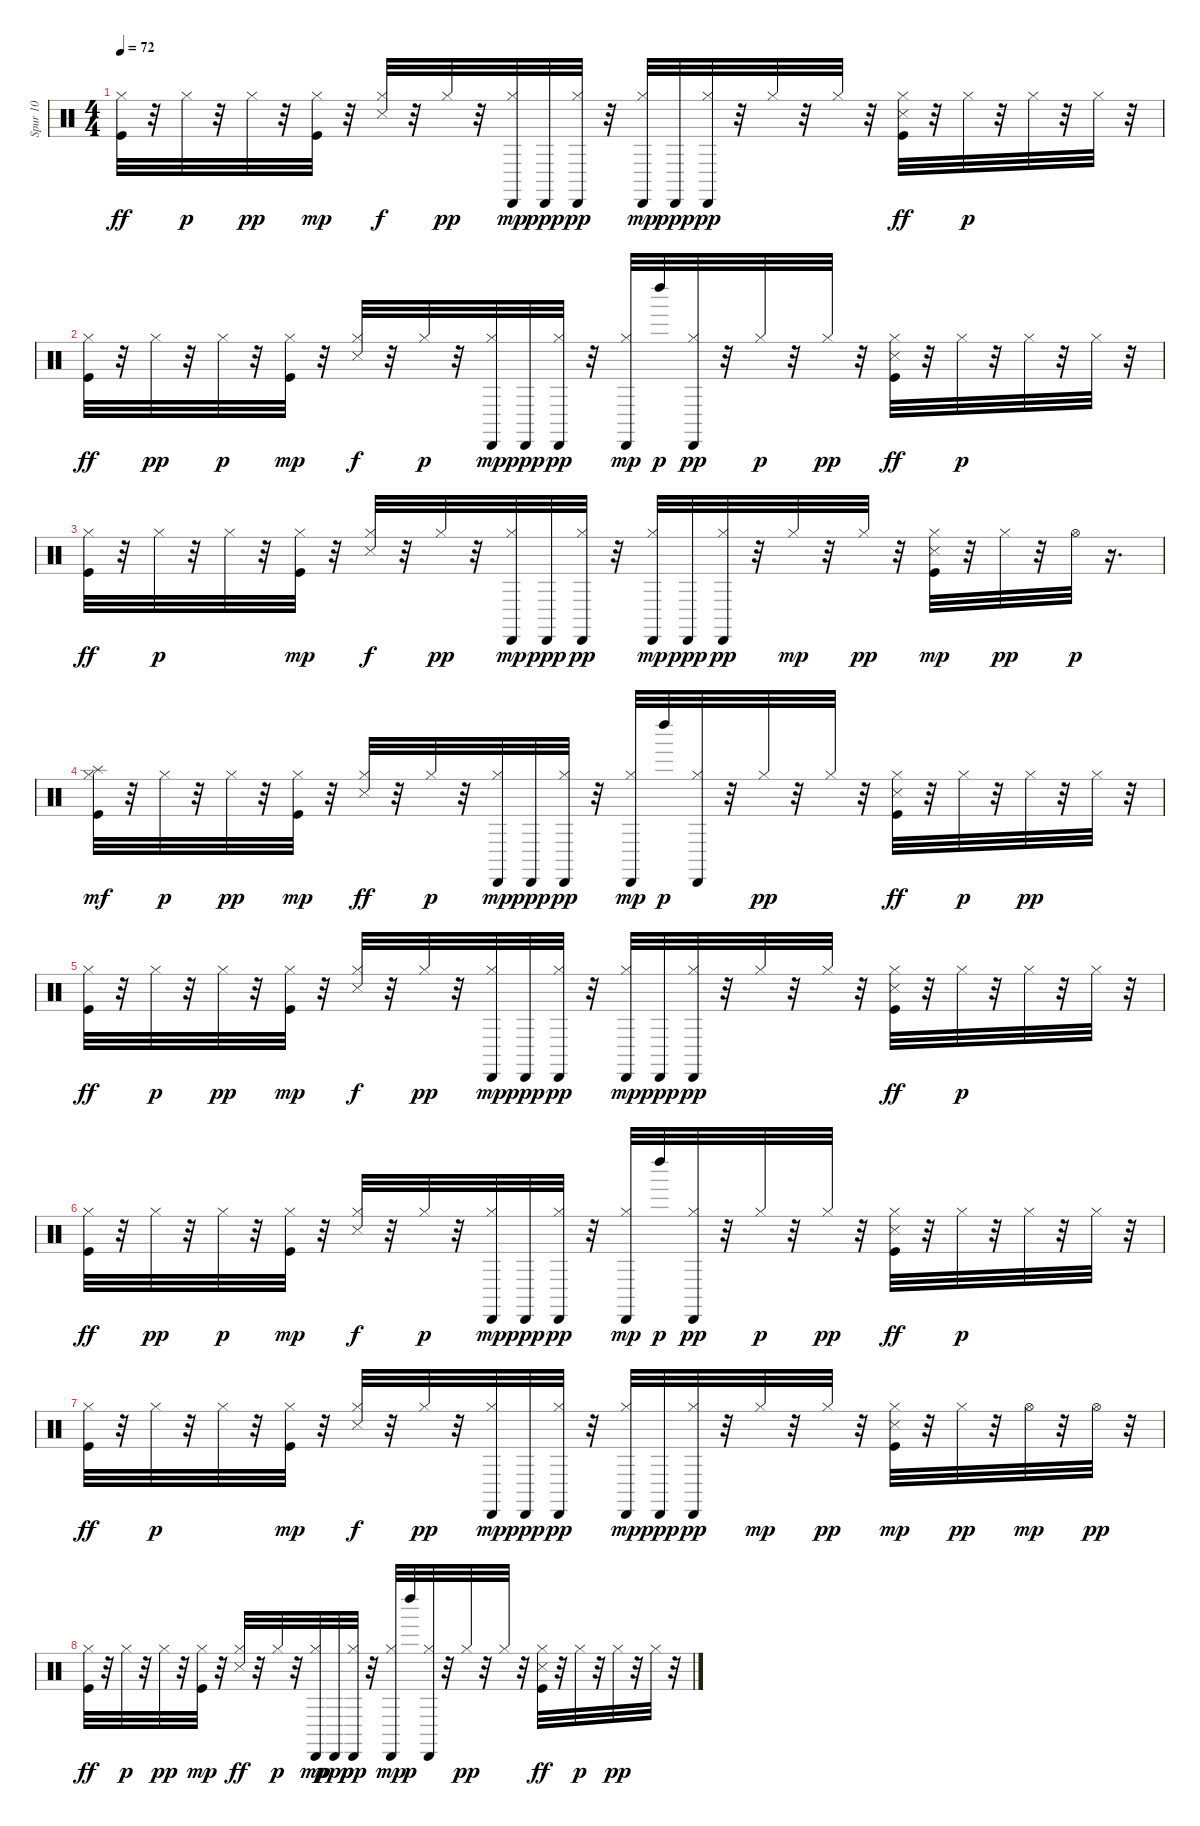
\track ("Spur 10" "Spur 10") {instrument percussion}
\staff {score}
\articulation defaults
\ts (4 4)
\tempo 72
\clef neutral
\ks c
("Kick (hit)" "Hi-Hat (closed)").32{dy ff} r.32 "Hi-Hat (closed)".32{dy p} r.32 "Hi-Hat (closed)".32{dy pp} r.32 ("Hi-Hat (closed)" "Kick (hit)").32{dy mp} r.32 ("Snare (side stick) 3" "Hi-Hat (closed)").32{dy f} r.32 "Hi-Hat (closed)".32{dy pp} r.32 ("Hi-Hat (closed)" "Cabasa (hit)").32{dy mp} "Cabasa (hit)".32{dy ppp} ("Hi-Hat (closed)" "Cabasa (hit)").32{dy pp} r.32 ("Hi-Hat (closed)" "Cabasa (hit)").32{dy mp} "Cabasa (hit)".32{dy ppp} ("Cabasa (hit)" "Hi-Hat (closed)").32{dy pp} r.32 "Hi-Hat (closed)".32 r.32 "Hi-Hat (closed)".32 r.32 ("Snare (side stick) 3" "Kick (hit)" "Hi-Hat (closed)").32{dy ff} r.32 "Hi-Hat (closed)".32{dy p} r.32 "Hi-Hat (closed)".32 r.32 "Hi-Hat (closed)".32 r.32 |
("Kick (hit)" "Hi-Hat (closed)").32{dy ff} r.32 "Hi-Hat (closed)".32{dy pp} r.32 "Hi-Hat (closed)".32{dy p} r.32 ("Hi-Hat (closed)" "Kick (hit)").32{dy mp} r.32 ("Snare (side stick) 3" "Hi-Hat (closed)").32{dy f} r.32 "Hi-Hat (closed)".32{dy p} r.32 ("Hi-Hat (closed)" "Cabasa (hit)").32{dy mp} "Cabasa (hit)".32{dy ppp} ("Hi-Hat (closed)" "Cabasa (hit)").32{dy pp} r.32 ("Hi-Hat (closed)" "Cabasa (hit)").32{dy mp} "Left Maraca (hit)".32{dy p} ("Cabasa (hit)" "Hi-Hat (closed)").32{dy pp} r.32 "Hi-Hat (closed)".32{dy p} r.32 "Hi-Hat (closed)".32{dy pp} r.32 ("Snare (side stick) 3" "Kick (hit)" "Hi-Hat (closed)").32{dy ff} r.32 "Hi-Hat (closed)".32{dy p} r.32 "Hi-Hat (closed)".32 r.32 "Hi-Hat (closed)".32 r.32 |
("Kick (hit)" "Hi-Hat (closed)").32{dy ff} r.32 "Hi-Hat (closed)".32{dy p} r.32 "Hi-Hat (closed)".32 r.32 ("Hi-Hat (closed)" "Kick (hit)").32{dy mp} r.32 ("Snare (side stick) 3" "Hi-Hat (closed)").32{dy f} r.32 "Hi-Hat (closed)".32{dy pp} r.32 ("Hi-Hat (closed)" "Cabasa (hit)").32{dy mp} "Cabasa (hit)".32{dy ppp} ("Hi-Hat (closed)" "Cabasa (hit)").32{dy pp} r.32 ("Hi-Hat (closed)" "Cabasa (hit)").32{dy mp} "Cabasa (hit)".32{dy ppp} ("Cabasa (hit)" "Hi-Hat (closed)").32{dy pp} r.32 "Hi-Hat (closed)".32{dy mp} r.32 "Hi-Hat (closed)".32{dy pp} r.32 ("Snare (side stick) 3" "Kick (hit)" "Hi-Hat (closed)").32{dy mp} r.32 "Hi-Hat (closed)".32{dy pp} r.32 "Hi-Hat (open)".32{dy p} r.16{d} |
("Kick (hit)" "Hi-Hat (closed)" "Splash (hit)").32{dy mf} r.32 "Hi-Hat (closed)".32{dy p} r.32 "Hi-Hat (closed)".32{dy pp} r.32 ("Hi-Hat (closed)" "Kick (hit)").32{dy mp} r.32 ("Hi-Hat (closed)" "Snare (side stick) 3").32{dy ff} r.32 "Hi-Hat (closed)".32{dy p} r.32 ("Hi-Hat (closed)" "Cabasa (hit)").32{dy mp} "Cabasa (hit)".32{dy ppp} ("Hi-Hat (closed)" "Cabasa (hit)").32{dy pp} r.32 ("Cabasa (hit)" "Hi-Hat (closed)").32{dy mp} "Left Maraca (hit)".32{dy p} ("Cabasa (hit)" "Hi-Hat (closed)").32 r.32 "Hi-Hat (closed)".32{dy pp} r.32 "Hi-Hat (closed)".32 r.32 ("Snare (side stick) 3" "Kick (hit)" "Hi-Hat (closed)").32{dy ff} r.32 "Hi-Hat (closed)".32{dy p} r.32 "Hi-Hat (closed)".32{dy pp} r.32 "Hi-Hat (closed)".32 r.32 |
("Kick (hit)" "Hi-Hat (closed)").32{dy ff} r.32 "Hi-Hat (closed)".32{dy p} r.32 "Hi-Hat (closed)".32{dy pp} r.32 ("Hi-Hat (closed)" "Kick (hit)").32{dy mp} r.32 ("Hi-Hat (closed)" "Snare (side stick) 3").32{dy f} r.32 "Hi-Hat (closed)".32{dy pp} r.32 ("Hi-Hat (closed)" "Cabasa (hit)").32{dy mp} "Cabasa (hit)".32{dy ppp} ("Hi-Hat (closed)" "Cabasa (hit)").32{dy pp} r.32 ("Hi-Hat (closed)" "Cabasa (hit)").32{dy mp} "Cabasa (hit)".32{dy ppp} ("Cabasa (hit)" "Hi-Hat (closed)").32{dy pp} r.32 "Hi-Hat (closed)".32 r.32 "Hi-Hat (closed)".32 r.32 ("Snare (side stick) 3" "Kick (hit)" "Hi-Hat (closed)").32{dy ff} r.32 "Hi-Hat (closed)".32{dy p} r.32 "Hi-Hat (closed)".32 r.32 "Hi-Hat (closed)".32 r.32 |
("Kick (hit)" "Hi-Hat (closed)").32{dy ff} r.32 "Hi-Hat (closed)".32{dy pp} r.32 "Hi-Hat (closed)".32{dy p} r.32 ("Hi-Hat (closed)" "Kick (hit)").32{dy mp} r.32 ("Hi-Hat (closed)" "Snare (side stick) 3").32{dy f} r.32 "Hi-Hat (closed)".32{dy p} r.32 ("Hi-Hat (closed)" "Cabasa (hit)").32{dy mp} "Cabasa (hit)".32{dy ppp} ("Hi-Hat (closed)" "Cabasa (hit)").32{dy pp} r.32 ("Hi-Hat (closed)" "Cabasa (hit)").32{dy mp} "Left Maraca (hit)".32{dy p} ("Cabasa (hit)" "Hi-Hat (closed)").32{dy pp} r.32 "Hi-Hat (closed)".32{dy p} r.32 "Hi-Hat (closed)".32{dy pp} r.32 ("Snare (side stick) 3" "Kick (hit)" "Hi-Hat (closed)").32{dy ff} r.32 "Hi-Hat (closed)".32{dy p} r.32 "Hi-Hat (closed)".32 r.32 "Hi-Hat (closed)".32 r.32 |
("Kick (hit)" "Hi-Hat (closed)").32{dy ff} r.32 "Hi-Hat (closed)".32{dy p} r.32 "Hi-Hat (closed)".32 r.32 ("Hi-Hat (closed)" "Kick (hit)").32{dy mp} r.32 ("Hi-Hat (closed)" "Snare (side stick) 3").32{dy f} r.32 "Hi-Hat (closed)".32{dy pp} r.32 ("Hi-Hat (closed)" "Cabasa (hit)").32{dy mp} "Cabasa (hit)".32{dy ppp} ("Hi-Hat (closed)" "Cabasa (hit)").32{dy pp} r.32 ("Hi-Hat (closed)" "Cabasa (hit)").32{dy mp} "Cabasa (hit)".32{dy ppp} ("Cabasa (hit)" "Hi-Hat (closed)").32{dy pp} r.32 "Hi-Hat (closed)".32{dy mp} r.32 "Hi-Hat (closed)".32{dy pp} r.32 ("Snare (side stick) 3" "Kick (hit)" "Hi-Hat (closed)").32{dy mp} r.32 "Hi-Hat (closed)".32{dy pp} r.32 "Hi-Hat (open)".32{dy mp} r.32 "Hi-Hat (open)".32{dy pp} r.32 |
("Kick (hit)" "Hi-Hat (closed)").32{dy ff} r.32 "Hi-Hat (closed)".32{dy p} r.32 "Hi-Hat (closed)".32{dy pp} r.32 ("Hi-Hat (closed)" "Kick (hit)").32{dy mp} r.32 ("Hi-Hat (closed)" "Snare (side stick) 3").32{dy ff} r.32 "Hi-Hat (closed)".32{dy p} r.32 ("Hi-Hat (closed)" "Cabasa (hit)").32{dy mp} "Cabasa (hit)".32{dy ppp} ("Hi-Hat (closed)" "Cabasa (hit)").32{dy pp} r.32 ("Cabasa (hit)" "Hi-Hat (closed)").32{dy mp} "Left Maraca (hit)".32{dy p} ("Cabasa (hit)" "Hi-Hat (closed)").32 r.32 "Hi-Hat (closed)".32{dy pp} r.32 "Hi-Hat (closed)".32 r.32 ("Snare (side stick) 3" "Kick (hit)" "Hi-Hat (closed)").32{dy ff} r.32 "Hi-Hat (closed)".32{dy p} r.32 "Hi-Hat (closed)".32{dy pp} r.32 "Hi-Hat (closed)".32 r.32
